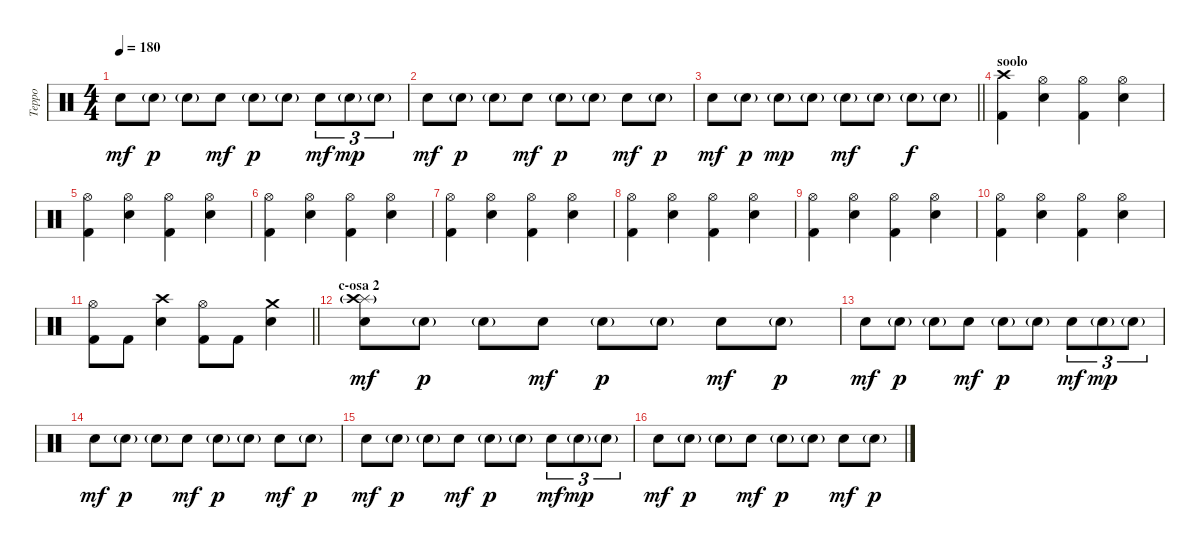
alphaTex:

\track ("Teppo" "Teppo") {instrument percussion}
\staff {score}
\articulation defaults
\ts (4 4)
\tempo 180
\clef neutral
\ks c "Electric Snare (hit)".8{dy mf} "Electric Snare (hit)"{g}.8{dy p} "Electric Snare (hit)"{g}.8 "Electric Snare (hit)".8{dy mf} "Electric Snare (hit)"{g}.8{dy p} "Electric Snare (hit)"{g}.8 "Electric Snare (hit)".8{tu (3 2) dy mf} "Electric Snare (hit)"{g}.8{tu (3 2) dy mp} "Electric Snare (hit)"{g}.8{tu (3 2)}
|
"Electric Snare (hit)".8{dy mf} "Electric Snare (hit)"{g}.8{dy p} "Electric Snare (hit)"{g}.8 "Electric Snare (hit)".8{dy mf} "Electric Snare (hit)"{g}.8{dy p} "Electric Snare (hit)"{g}.8 "Electric Snare (hit)".8{dy mf} "Electric Snare (hit)"{g}.8{dy p} |
\barLineRight lightlight "Electric Snare (hit)".8{dy mf} "Electric Snare (hit)"{g}.8{dy p} "Electric Snare (hit)"{g}.8{dy mp} "Electric Snare (hit)"{g}.8 "Electric Snare (hit)"{g}.8{dy mf} "Electric Snare (hit)"{g}.8 "Electric Snare (hit)"{g}.8{dy f} "Electric Snare (hit)"{g}.8
|
\section ("" "soolo")
("Crash high (hit)" "Kick (hit) 2").4 ("Hi-Hat (open)" "Electric Snare (hit)").4 ("Hi-Hat (open)" "Kick (hit) 2").4 ("Hi-Hat (open)" "Electric Snare (hit)").4 |
("Hi-Hat (open)" "Kick (hit) 2").4 ("Hi-Hat (open)" "Electric Snare (hit)").4 ("Hi-Hat (open)" "Kick (hit) 2").4 ("Hi-Hat (open)" "Electric Snare (hit)").4 |
("Hi-Hat (open)" "Kick (hit) 2").4 ("Hi-Hat (open)" "Electric Snare (hit)").4 ("Hi-Hat (open)" "Kick (hit) 2").4 ("Hi-Hat (open)" "Electric Snare (hit)").4 |
("Hi-Hat (open)" "Kick (hit) 2").4 ("Hi-Hat (open)" "Electric Snare (hit)").4 ("Hi-Hat (open)" "Kick (hit) 2").4 ("Hi-Hat (open)" "Electric Snare (hit)").4 |
("Hi-Hat (open)" "Kick (hit) 2").4 ("Hi-Hat (open)" "Electric Snare (hit)").4 ("Hi-Hat (open)" "Kick (hit) 2").4 ("Hi-Hat (open)" "Electric Snare (hit)").4 |
("Hi-Hat (open)" "Kick (hit) 2").4 ("Hi-Hat (open)" "Electric Snare (hit)").4 ("Hi-Hat (open)" "Kick (hit) 2").4 ("Hi-Hat (open)" "Electric Snare (hit)").4 |
("Hi-Hat (open)" "Kick (hit) 2").4 ("Hi-Hat (open)" "Electric Snare (hit)").4 ("Hi-Hat (open)" "Kick (hit) 2").4 ("Hi-Hat (open)" "Electric Snare (hit)").4 |
\barLineRight lightlight
("Hi-Hat (open)" "Kick (hit) 2").8 "Kick (hit) 2".8 ("Crash high (hit)" "Electric Snare (hit)").4 ("Hi-Hat (open)" "Kick (hit) 2").8 "Kick (hit) 2".8 ("Crash medium (hit)" "Electric Snare (hit)").4 |
\section ("" "c-osa 2")
("Splash (hit)" "Crash high (hit)"{g} "Electric Snare (hit)").8{dy mf} "Electric Snare (hit)"{g}.8{dy p} "Electric Snare (hit)"{g}.8 "Electric Snare (hit)".8{dy mf} "Electric Snare (hit)"{g}.8{dy p} "Electric Snare (hit)"{g}.8 "Electric Snare (hit)".8{dy mf} "Electric Snare (hit)"{g}.8{dy p} |
"Electric Snare (hit)".8{dy mf} "Electric Snare (hit)"{g}.8{dy p} "Electric Snare (hit)"{g}.8 "Electric Snare (hit)".8{dy mf} "Electric Snare (hit)"{g}.8{dy p} "Electric Snare (hit)"{g}.8 "Electric Snare (hit)".8{tu (3 2) dy mf} "Electric Snare (hit)"{g}.8{tu (3 2) dy mp} "Electric Snare (hit)"{g}.8{tu (3 2)} |
"Electric Snare (hit)".8{dy mf} "Electric Snare (hit)"{g}.8{dy p} "Electric Snare (hit)"{g}.8 "Electric Snare (hit)".8{dy mf} "Electric Snare (hit)"{g}.8{dy p} "Electric Snare (hit)"{g}.8 "Electric Snare (hit)".8{dy mf} "Electric Snare (hit)"{g}.8{dy p} |
"Electric Snare (hit)".8{dy mf} "Electric Snare (hit)"{g}.8{dy p} "Electric Snare (hit)"{g}.8 "Electric Snare (hit)".8{dy mf} "Electric Snare (hit)"{g}.8{dy p} "Electric Snare (hit)"{g}.8 "Electric Snare (hit)".8{tu (3 2) dy mf} "Electric Snare (hit)"{g}.8{tu (3 2) dy mp} "Electric Snare (hit)"{g}.8{tu (3 2)} |
"Electric Snare (hit)".8{dy mf} "Electric Snare (hit)"{g}.8{dy p} "Electric Snare (hit)"{g}.8 "Electric Snare (hit)".8{dy mf} "Electric Snare (hit)"{g}.8{dy p} "Electric Snare (hit)"{g}.8 "Electric Snare (hit)".8{dy mf} "Electric Snare (hit)"{g}.8{dy p}
